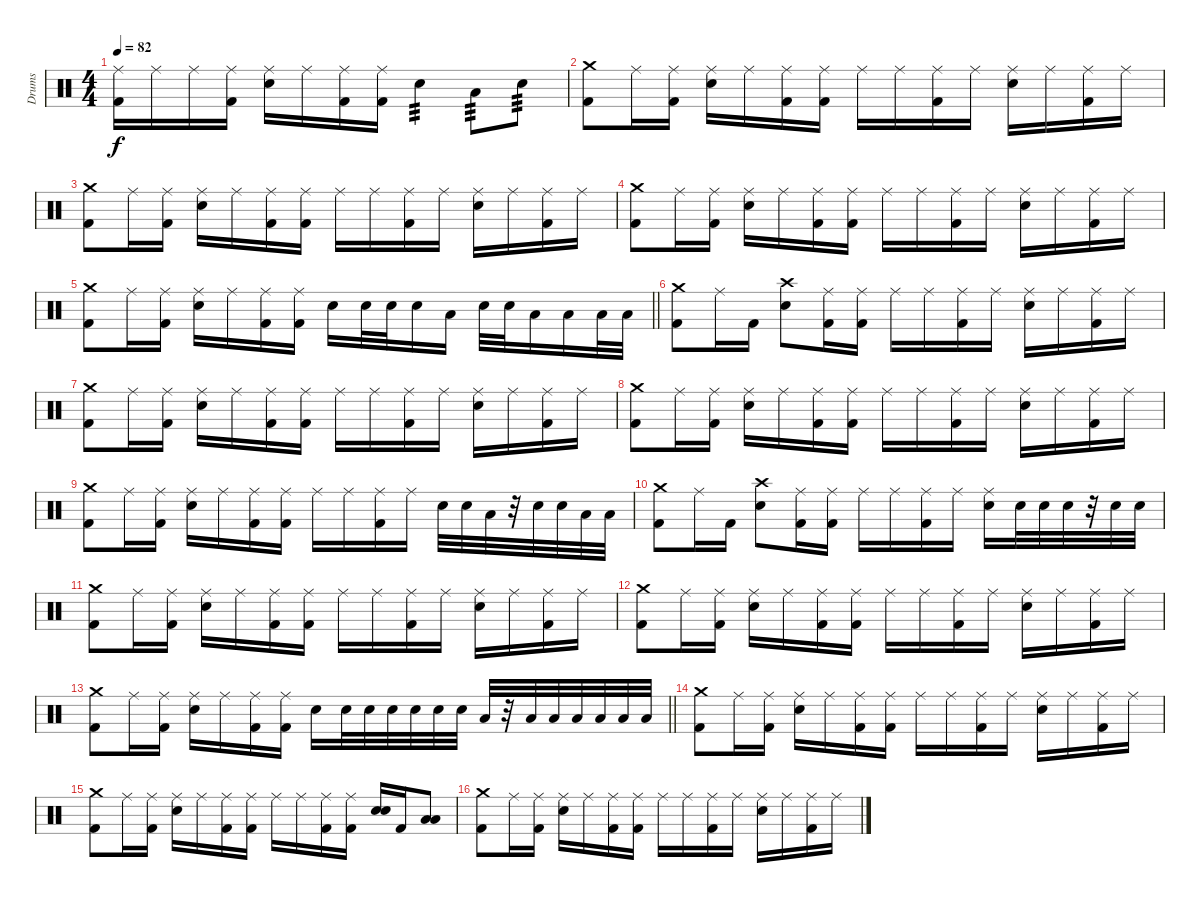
\track ("Drums" "Drums") {instrument percussion}
\staff {score}
\articulation defaults
\ts (4 4)
\tempo 82
\clef neutral
\ks c
("Ride (middle)" "Kick (hit) 2").16{dy f} "Ride (middle)".16 "Ride (middle)".16 ("Ride (middle)" "Kick (hit) 2").16 ("Ride (middle)" "Snare (hit) 2").16 "Ride (middle)".16 ("Ride (middle)" "Kick (hit) 2").16 ("Ride (middle)" "Kick (hit) 2").16 "Snare (hit) 2".4{tp 3} "Low Tom (hit)".8{tp 3} "Snare (hit) 2".8{tp 3} |
("Crash medium (hit)" "Kick (hit) 2").8 "Ride (middle)".16 ("Ride (middle)" "Kick (hit) 2").16 ("Ride (middle)" "Snare (hit) 2").16 "Ride (middle)".16 ("Ride (middle)" "Kick (hit) 2").16 ("Ride (middle)" "Kick (hit) 2").16 "Ride (middle)".16 "Ride (middle)".16 ("Ride (middle)" "Kick (hit) 2").16 "Ride (middle)".16 ("Ride (middle)" "Snare (hit) 2").16 "Ride (middle)".16 ("Ride (middle)" "Kick (hit) 2").16 "Ride (middle)".16 |
("Crash medium (hit)" "Kick (hit) 2").8 "Ride (middle)".16 ("Ride (middle)" "Kick (hit) 2").16 ("Ride (middle)" "Snare (hit) 2").16 "Ride (middle)".16 ("Ride (middle)" "Kick (hit) 2").16 ("Ride (middle)" "Kick (hit) 2").16 "Ride (middle)".16 "Ride (middle)".16 ("Ride (middle)" "Kick (hit) 2").16 "Ride (middle)".16 ("Ride (middle)" "Snare (hit) 2").16 "Ride (middle)".16 ("Ride (middle)" "Kick (hit) 2").16 "Ride (middle)".16 |
("Crash medium (hit)" "Kick (hit) 2").8 "Ride (middle)".16 ("Ride (middle)" "Kick (hit) 2").16 ("Ride (middle)" "Snare (hit) 2").16 "Ride (middle)".16 ("Ride (middle)" "Kick (hit) 2").16 ("Ride (middle)" "Kick (hit) 2").16 "Ride (middle)".16 "Ride (middle)".16 ("Ride (middle)" "Kick (hit) 2").16 "Ride (middle)".16 ("Ride (middle)" "Snare (hit) 2").16 "Ride (middle)".16 ("Ride (middle)" "Kick (hit) 2").16 "Ride (middle)".16 |
\barLineRight lightlight
("Crash medium (hit)" "Kick (hit) 2").8 "Ride (middle)".16 ("Ride (middle)" "Kick (hit) 2").16 ("Ride (middle)" "Snare (hit) 2").16 "Ride (middle)".16 ("Ride (middle)" "Kick (hit) 2").16 ("Ride (middle)" "Kick (hit) 2").16 "Snare (hit) 2".16 "Snare (hit) 2".32 "Snare (hit) 2".32 "Snare (hit) 2".16 "Low Tom (hit)".16 "Snare (hit) 2".32 "Snare (hit) 2".32 "Low Tom (hit)".16 "Low Tom (hit)".16 "Low Tom (hit)".32 "Low Tom (hit)".32 |
("Crash medium (hit)" "Kick (hit) 2").8 "Ride (middle)".16 "Kick (hit) 2".16 ("Crash high (hit)" "Snare (hit) 2").8 ("Ride (middle)" "Kick (hit) 2").16 ("Ride (middle)" "Kick (hit) 2").16 "Ride (middle)".16 "Ride (middle)".16 ("Ride (middle)" "Kick (hit) 2").16 "Ride (middle)".16 ("Ride (middle)" "Snare (hit) 2").16 "Ride (middle)".16 ("Ride (middle)" "Kick (hit) 2").16 "Ride (middle)".16 |
("Crash medium (hit)" "Kick (hit) 2").8 "Ride (middle)".16 ("Ride (middle)" "Kick (hit) 2").16 ("Ride (middle)" "Snare (hit) 2").16 "Ride (middle)".16 ("Ride (middle)" "Kick (hit) 2").16 ("Ride (middle)" "Kick (hit) 2").16 "Ride (middle)".16 "Ride (middle)".16 ("Ride (middle)" "Kick (hit) 2").16 "Ride (middle)".16 ("Ride (middle)" "Snare (hit) 2").16 "Ride (middle)".16 ("Ride (middle)" "Kick (hit) 2").16 "Ride (middle)".16 |
("Crash medium (hit)" "Kick (hit) 2").8 "Ride (middle)".16 ("Ride (middle)" "Kick (hit) 2").16 ("Ride (middle)" "Snare (hit) 2").16 "Ride (middle)".16 ("Ride (middle)" "Kick (hit) 2").16 ("Ride (middle)" "Kick (hit) 2").16 "Ride (middle)".16 "Ride (middle)".16 ("Ride (middle)" "Kick (hit) 2").16 "Ride (middle)".16 ("Ride (middle)" "Snare (hit) 2").16 "Ride (middle)".16 ("Ride (middle)" "Kick (hit) 2").16 "Ride (middle)".16 |
("Crash medium (hit)" "Kick (hit) 2").8 "Ride (middle)".16 ("Ride (middle)" "Kick (hit) 2").16 ("Ride (middle)" "Snare (hit) 2").16 "Ride (middle)".16 ("Ride (middle)" "Kick (hit) 2").16 ("Ride (middle)" "Kick (hit) 2").16 "Ride (middle)".16 "Ride (middle)".16 ("Ride (middle)" "Kick (hit) 2").16 "Ride (middle)".16 "Snare (hit) 2".32 "Snare (hit) 2".32 "Low Tom (hit)".32 r.32 "Snare (hit) 2".32 "Snare (hit) 2".32 "Low Tom (hit)".32 "Low Tom (hit)".32 |
("Crash medium (hit)" "Kick (hit) 2").8 "Ride (middle)".16 "Kick (hit) 2".16 ("Crash high (hit)" "Snare (hit) 2").8 ("Ride (middle)" "Kick (hit) 2").16 ("Ride (middle)" "Kick (hit) 2").16 "Ride (middle)".16 "Ride (middle)".16 ("Ride (middle)" "Kick (hit) 2").16 "Ride (middle)".16 ("Ride (middle)" "Snare (hit) 2").16 "Snare (hit) 2".32 "Snare (hit) 2".32 "Snare (hit) 2".32 r.32 "Snare (hit) 2".32 "Snare (hit) 2".32 |
("Crash medium (hit)" "Kick (hit) 2").8 "Ride (middle)".16 ("Ride (middle)" "Kick (hit) 2").16 ("Ride (middle)" "Snare (hit) 2").16 "Ride (middle)".16 ("Ride (middle)" "Kick (hit) 2").16 ("Ride (middle)" "Kick (hit) 2").16 "Ride (middle)".16 "Ride (middle)".16 ("Ride (middle)" "Kick (hit) 2").16 "Ride (middle)".16 ("Ride (middle)" "Snare (hit) 2").16 "Ride (middle)".16 ("Ride (middle)" "Kick (hit) 2").16 "Ride (middle)".16 |
("Crash medium (hit)" "Kick (hit) 2").8 "Ride (middle)".16 ("Ride (middle)" "Kick (hit) 2").16 ("Ride (middle)" "Snare (hit) 2").16 "Ride (middle)".16 ("Ride (middle)" "Kick (hit) 2").16 ("Ride (middle)" "Kick (hit) 2").16 "Ride (middle)".16 "Ride (middle)".16 ("Ride (middle)" "Kick (hit) 2").16 "Ride (middle)".16 ("Ride (middle)" "Snare (hit) 2").16 "Ride (middle)".16 ("Ride (middle)" "Kick (hit) 2").16 "Ride (middle)".16 |
\barLineRight lightlight
("Crash medium (hit)" "Kick (hit) 2").8 "Ride (middle)".16 ("Ride (middle)" "Kick (hit) 2").16 ("Ride (middle)" "Snare (hit) 2").16 "Ride (middle)".16 ("Ride (middle)" "Kick (hit) 2").16 ("Ride (middle)" "Kick (hit) 2").16 "Snare (hit) 2".16 "Snare (hit) 2".32 "Snare (hit) 2".32 "Snare (hit) 2".32 "Snare (hit) 2".32 "Snare (hit) 2".32 "Snare (hit) 2".32 "Low Tom (hit)".32 r.32 "Low Tom (hit)".32 "Low Tom (hit)".32 "Low Tom (hit)".32 "Low Tom (hit)".32 "Low Floor Tom (hit)".32 "Low Floor Tom (hit)".32 |
("Crash medium (hit)" "Kick (hit) 2").8 "Ride (middle)".16 ("Ride (middle)" "Kick (hit) 2").16 ("Ride (middle)" "Snare (hit) 2").16 "Ride (middle)".16 ("Ride (middle)" "Kick (hit) 2").16 ("Ride (middle)" "Kick (hit) 2").16 "Ride (middle)".16 "Ride (middle)".16 ("Ride (middle)" "Kick (hit) 2").16 "Ride (middle)".16 ("Ride (middle)" "Snare (hit) 2").16 "Ride (middle)".16 ("Ride (middle)" "Kick (hit) 2").16 "Ride (middle)".16 |
("Crash medium (hit)" "Kick (hit) 2").8 "Ride (middle)".16 ("Ride (middle)" "Kick (hit) 2").16 ("Ride (middle)" "Snare (hit) 2").16 "Ride (middle)".16 ("Ride (middle)" "Kick (hit) 2").16 ("Ride (middle)" "Kick (hit) 2").16 "Ride (middle)".16 "Ride (middle)".16 ("Ride (middle)" "Kick (hit) 2").16 ("Ride (middle)" "Kick (hit) 2").16 ("Snare (hit) 2" "Snare (hit) 2").16{bd 120} "Kick (hit) 2".16 ("Low Tom (hit)" "Low Tom (hit)").8{bd 120} |
("Crash medium (hit)" "Kick (hit) 2").8 "Ride (middle)".16 ("Ride (middle)" "Kick (hit) 2").16 ("Ride (middle)" "Snare (hit) 2").16 "Ride (middle)".16 ("Ride (middle)" "Kick (hit) 2").16 ("Ride (middle)" "Kick (hit) 2").16 "Ride (middle)".16 "Ride (middle)".16 ("Ride (middle)" "Kick (hit) 2").16 "Ride (middle)".16 ("Ride (middle)" "Snare (hit) 2").16 "Ride (middle)".16 ("Ride (middle)" "Kick (hit) 2").16 "Ride (middle)".16
